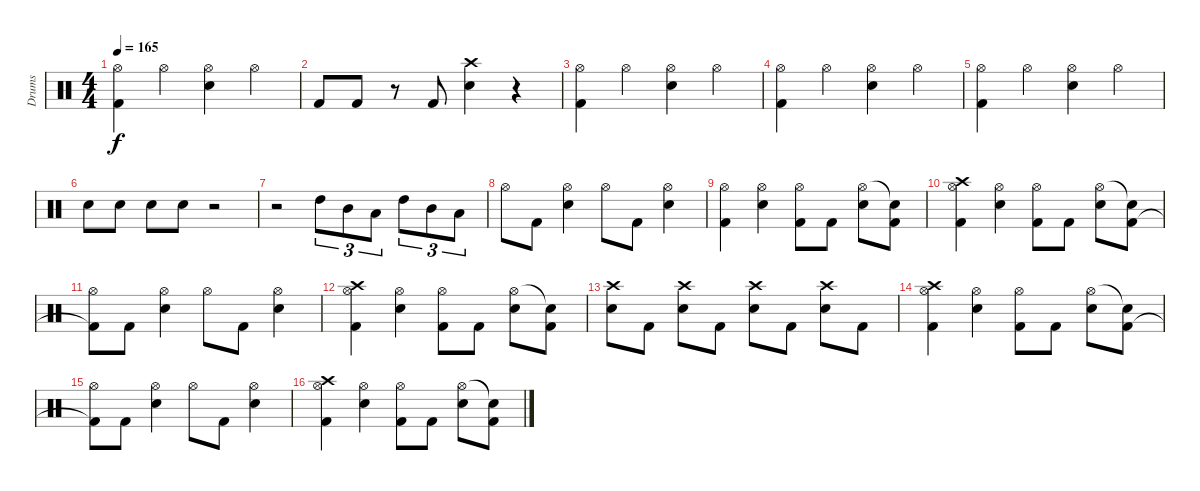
\track ("Drums" "Drums") {instrument percussion}
\staff {score}
\articulation defaults
\ts (4 4)
\tempo 165
\clef neutral
\ks c
("Hi-Hat (open)" "Kick (hit) 2").4{dy f} "Hi-Hat (open)".4 ("Hi-Hat (open)" "Snare (hit) 2").4 "Hi-Hat (open)".4 |
"Kick (hit) 2".8 "Kick (hit) 2".8 r.8 "Kick (hit) 2".8 ("Crash high (hit)" "Snare (hit) 2").4 r.4 |
("Hi-Hat (open)" "Kick (hit) 2").4 "Hi-Hat (open)".4 ("Hi-Hat (open)" "Snare (hit) 2").4 "Hi-Hat (open)".4 |
("Hi-Hat (open)" "Kick (hit) 2").4 "Hi-Hat (open)".4 ("Hi-Hat (open)" "Snare (hit) 2").4 "Hi-Hat (open)".4 |
("Hi-Hat (open)" "Kick (hit) 2").4 "Hi-Hat (open)".4 ("Hi-Hat (open)" "Snare (hit) 2").4 "Hi-Hat (open)".4 |
"Snare (hit) 2".8 "Snare (hit) 2".8 "Snare (hit) 2".8 "Snare (hit) 2".8 r.2 |
r.2 "High Tom (hit)".8{tu (3 2)} "Mid Tom (hit)".8{tu (3 2)} "Low Tom (hit)".8{tu (3 2)} "High Tom (hit)".8{tu (3 2)} "Mid Tom (hit)".8{tu (3 2)} "Low Tom (hit)".8{tu (3 2)} |
"Hi-Hat (open)".8 "Kick (hit) 2".8 ("Hi-Hat (open)" "Snare (hit) 2").4 "Hi-Hat (open)".8 "Kick (hit) 2".8 ("Hi-Hat (open)" "Snare (hit) 2").4 |
("Hi-Hat (open)" "Kick (hit) 2").4 ("Hi-Hat (open)" "Snare (hit) 2").4 ("Hi-Hat (open)" "Kick (hit) 2").8 "Kick (hit) 2".8 ("Hi-Hat (open)" "Snare (hit) 2").8 ("Snare (hit) 2"{t} "Kick (hit) 2").8 |
("Crash high (hit)" "Hi-Hat (open)" "Kick (hit) 2").4 ("Hi-Hat (open)" "Snare (hit) 2").4 ("Hi-Hat (open)" "Kick (hit) 2").8 "Kick (hit) 2".8 ("Hi-Hat (open)" "Snare (hit) 2").8 ("Snare (hit) 2"{t} "Kick (hit) 2").8 |
("Hi-Hat (open)" "Kick (hit) 2"{t}).8 "Kick (hit) 2".8 ("Hi-Hat (open)" "Snare (hit) 2").4 "Hi-Hat (open)".8 "Kick (hit) 2".8 ("Hi-Hat (open)" "Snare (hit) 2").4 |
("Crash high (hit)" "Hi-Hat (open)" "Kick (hit) 2").4 ("Hi-Hat (open)" "Snare (hit) 2").4 ("Hi-Hat (open)" "Kick (hit) 2").8 "Kick (hit) 2".8 ("Hi-Hat (open)" "Snare (hit) 2").8 ("Snare (hit) 2"{t} "Kick (hit) 2").8 |
("Crash high (hit)" "Snare (hit) 2").8 "Kick (hit) 2".8 ("Crash high (hit)" "Snare (hit) 2").8 "Kick (hit) 2".8 ("Crash high (hit)" "Snare (hit) 2").8 "Kick (hit) 2".8 ("Crash high (hit)" "Snare (hit) 2").8 "Kick (hit) 2".8 |
("Crash high (hit)" "Hi-Hat (open)" "Kick (hit) 2").4 ("Hi-Hat (open)" "Snare (hit) 2").4 ("Hi-Hat (open)" "Kick (hit) 2").8 "Kick (hit) 2".8 ("Hi-Hat (open)" "Snare (hit) 2").8 ("Snare (hit) 2"{t} "Kick (hit) 2").8 |
("Hi-Hat (open)" "Kick (hit) 2"{t}).8 "Kick (hit) 2".8 ("Hi-Hat (open)" "Snare (hit) 2").4 "Hi-Hat (open)".8 "Kick (hit) 2".8 ("Hi-Hat (open)" "Snare (hit) 2").4 |
("Crash high (hit)" "Hi-Hat (open)" "Kick (hit) 2").4 ("Hi-Hat (open)" "Snare (hit) 2").4 ("Hi-Hat (open)" "Kick (hit) 2").8 "Kick (hit) 2".8 ("Hi-Hat (open)" "Snare (hit) 2").8 ("Snare (hit) 2"{t} "Kick (hit) 2").8
